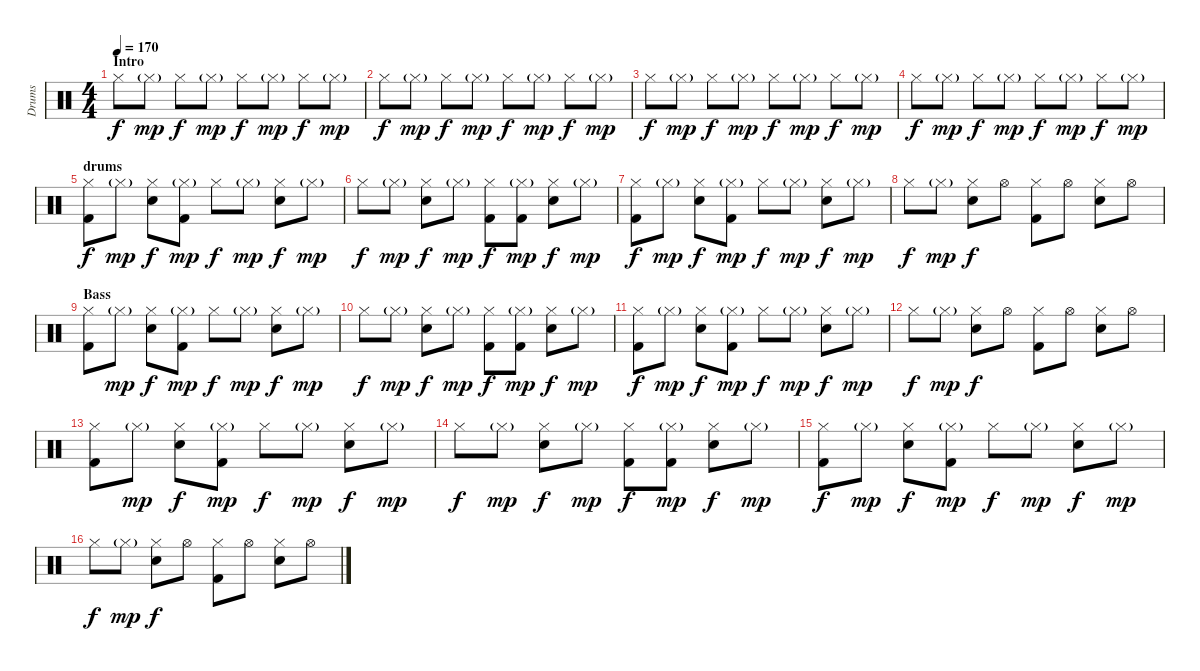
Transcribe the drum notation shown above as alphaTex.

\track ("Drums" "Drums") {instrument percussion}
\staff {score}
\articulation defaults
\ts (4 4)
\section ("" "Intro")
\tempo 170
\clef neutral
\ks c "Hi-Hat (closed)".8{dy f} "Hi-Hat (closed)"{g}.8{dy mp} "Hi-Hat (closed)".8{dy f} "Hi-Hat (closed)"{g}.8{dy mp} "Hi-Hat (closed)".8{dy f} "Hi-Hat (closed)"{g}.8{dy mp} "Hi-Hat (closed)".8{dy f} "Hi-Hat (closed)"{g}.8{dy mp}
|
"Hi-Hat (closed)".8{dy f} "Hi-Hat (closed)"{g}.8{dy mp} "Hi-Hat (closed)".8{dy f} "Hi-Hat (closed)"{g}.8{dy mp} "Hi-Hat (closed)".8{dy f} "Hi-Hat (closed)"{g}.8{dy mp} "Hi-Hat (closed)".8{dy f} "Hi-Hat (closed)"{g}.8{dy mp} |
"Hi-Hat (closed)".8{dy f} "Hi-Hat (closed)"{g}.8{dy mp} "Hi-Hat (closed)".8{dy f} "Hi-Hat (closed)"{g}.8{dy mp} "Hi-Hat (closed)".8{dy f} "Hi-Hat (closed)"{g}.8{dy mp} "Hi-Hat (closed)".8{dy f} "Hi-Hat (closed)"{g}.8{dy mp} |
"Hi-Hat (closed)".8{dy f} "Hi-Hat (closed)"{g}.8{dy mp} "Hi-Hat (closed)".8{dy f} "Hi-Hat (closed)"{g}.8{dy mp} "Hi-Hat (closed)".8{dy f} "Hi-Hat (closed)"{g}.8{dy mp} "Hi-Hat (closed)".8{dy f} "Hi-Hat (closed)"{g}.8{dy mp} |
\section ("" "drums")
("Hi-Hat (closed)" "Kick (hit) 2").8{dy f} "Hi-Hat (closed)"{g}.8{dy mp} ("Hi-Hat (closed)" "Electric Snare (hit)").8{dy f} ("Hi-Hat (closed)"{g} "Kick (hit) 2").8{dy mp} "Hi-Hat (closed)".8{dy f} "Hi-Hat (closed)"{g}.8{dy mp} ("Hi-Hat (closed)" "Electric Snare (hit)").8{dy f} "Hi-Hat (closed)"{g}.8{dy mp} |
"Hi-Hat (closed)".8{dy f} "Hi-Hat (closed)"{g}.8{dy mp} ("Hi-Hat (closed)" "Electric Snare (hit)").8{dy f} "Hi-Hat (closed)"{g}.8{dy mp} ("Hi-Hat (closed)" "Kick (hit) 2").8{dy f} ("Hi-Hat (closed)"{g} "Kick (hit) 2").8{dy mp} ("Hi-Hat (closed)" "Electric Snare (hit)").8{dy f} "Hi-Hat (closed)"{g}.8{dy mp} |
("Hi-Hat (closed)" "Kick (hit) 2").8{dy f} "Hi-Hat (closed)"{g}.8{dy mp} ("Hi-Hat (closed)" "Electric Snare (hit)").8{dy f} ("Hi-Hat (closed)"{g} "Kick (hit) 2").8{dy mp} "Hi-Hat (closed)".8{dy f} "Hi-Hat (closed)"{g}.8{dy mp} ("Hi-Hat (closed)" "Electric Snare (hit)").8{dy f} "Hi-Hat (closed)"{g}.8{dy mp} |
"Hi-Hat (closed)".8{dy f} "Hi-Hat (closed)"{g}.8{dy mp} ("Hi-Hat (closed)" "Electric Snare (hit)").8{dy f} "Hi-Hat (open)".8 ("Hi-Hat (closed)" "Kick (hit) 2").8 "Hi-Hat (open)".8 ("Hi-Hat (closed)" "Electric Snare (hit)").8 "Hi-Hat (open)".8 |
\section ("" "Bass")
("Hi-Hat (closed)" "Kick (hit) 2").8 "Hi-Hat (closed)"{g}.8{dy mp} ("Hi-Hat (closed)" "Electric Snare (hit)").8{dy f} ("Hi-Hat (closed)"{g} "Kick (hit) 2").8{dy mp} "Hi-Hat (closed)".8{dy f} "Hi-Hat (closed)"{g}.8{dy mp} ("Hi-Hat (closed)" "Electric Snare (hit)").8{dy f} "Hi-Hat (closed)"{g}.8{dy mp} |
"Hi-Hat (closed)".8{dy f} "Hi-Hat (closed)"{g}.8{dy mp} ("Hi-Hat (closed)" "Electric Snare (hit)").8{dy f} "Hi-Hat (closed)"{g}.8{dy mp} ("Hi-Hat (closed)" "Kick (hit) 2").8{dy f} ("Hi-Hat (closed)"{g} "Kick (hit) 2").8{dy mp} ("Hi-Hat (closed)" "Electric Snare (hit)").8{dy f} "Hi-Hat (closed)"{g}.8{dy mp} |
("Hi-Hat (closed)" "Kick (hit) 2").8{dy f} "Hi-Hat (closed)"{g}.8{dy mp} ("Hi-Hat (closed)" "Electric Snare (hit)").8{dy f} ("Hi-Hat (closed)"{g} "Kick (hit) 2").8{dy mp} "Hi-Hat (closed)".8{dy f} "Hi-Hat (closed)"{g}.8{dy mp} ("Hi-Hat (closed)" "Electric Snare (hit)").8{dy f} "Hi-Hat (closed)"{g}.8{dy mp} |
"Hi-Hat (closed)".8{dy f} "Hi-Hat (closed)"{g}.8{dy mp} ("Hi-Hat (closed)" "Electric Snare (hit)").8{dy f} "Hi-Hat (open)".8 ("Hi-Hat (closed)" "Kick (hit) 2").8 "Hi-Hat (open)".8 ("Hi-Hat (closed)" "Electric Snare (hit)").8 "Hi-Hat (open)".8 |
("Hi-Hat (closed)" "Kick (hit) 2").8 "Hi-Hat (closed)"{g}.8{dy mp} ("Hi-Hat (closed)" "Electric Snare (hit)").8{dy f} ("Hi-Hat (closed)"{g} "Kick (hit) 2").8{dy mp} "Hi-Hat (closed)".8{dy f} "Hi-Hat (closed)"{g}.8{dy mp} ("Hi-Hat (closed)" "Electric Snare (hit)").8{dy f} "Hi-Hat (closed)"{g}.8{dy mp} |
"Hi-Hat (closed)".8{dy f} "Hi-Hat (closed)"{g}.8{dy mp} ("Hi-Hat (closed)" "Electric Snare (hit)").8{dy f} "Hi-Hat (closed)"{g}.8{dy mp} ("Hi-Hat (closed)" "Kick (hit) 2").8{dy f} ("Hi-Hat (closed)"{g} "Kick (hit) 2").8{dy mp} ("Hi-Hat (closed)" "Electric Snare (hit)").8{dy f} "Hi-Hat (closed)"{g}.8{dy mp} |
("Hi-Hat (closed)" "Kick (hit) 2").8{dy f} "Hi-Hat (closed)"{g}.8{dy mp} ("Hi-Hat (closed)" "Electric Snare (hit)").8{dy f} ("Hi-Hat (closed)"{g} "Kick (hit) 2").8{dy mp} "Hi-Hat (closed)".8{dy f} "Hi-Hat (closed)"{g}.8{dy mp} ("Hi-Hat (closed)" "Electric Snare (hit)").8{dy f} "Hi-Hat (closed)"{g}.8{dy mp} |
"Hi-Hat (closed)".8{dy f} "Hi-Hat (closed)"{g}.8{dy mp} ("Hi-Hat (closed)" "Electric Snare (hit)").8{dy f} "Hi-Hat (open)".8 ("Hi-Hat (closed)" "Kick (hit) 2").8 "Hi-Hat (open)".8 ("Hi-Hat (closed)" "Electric Snare (hit)").8 "Hi-Hat (open)".8
